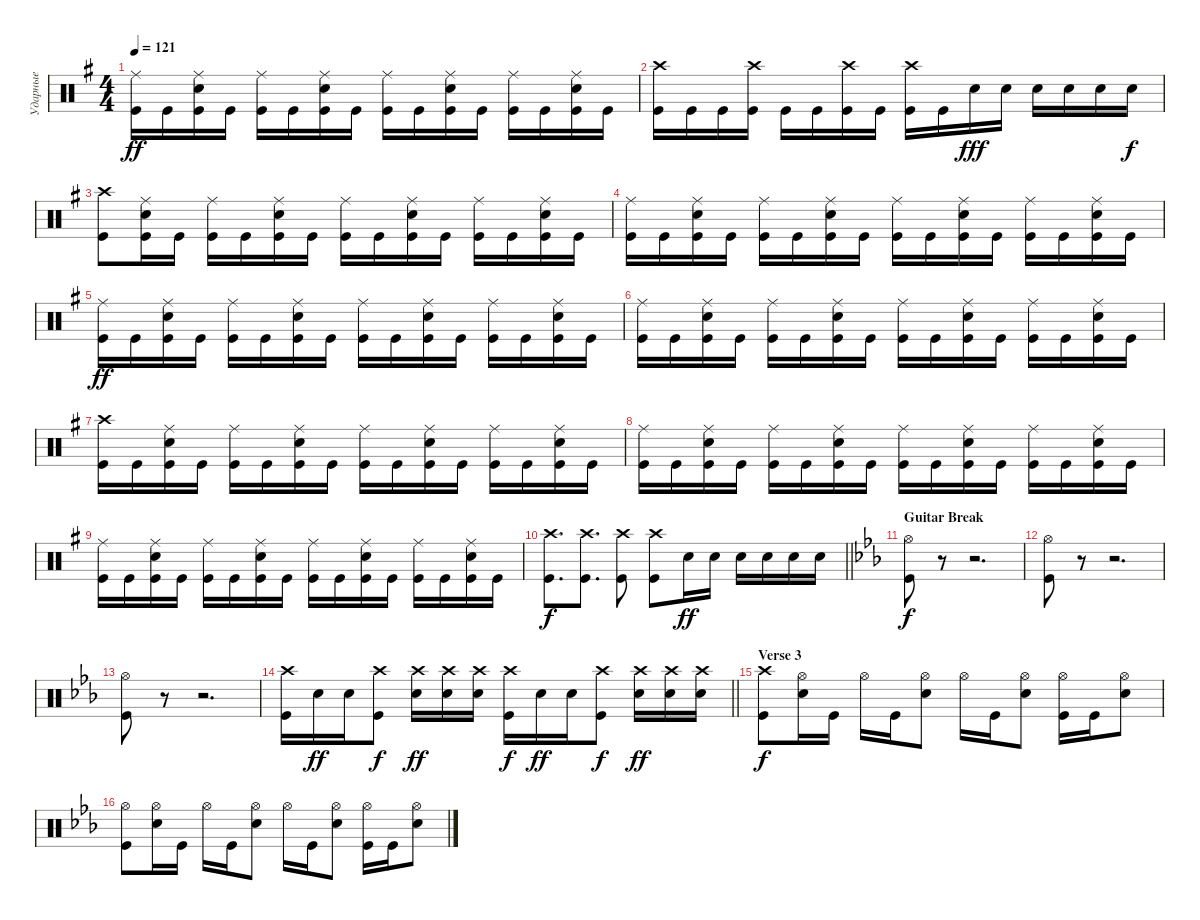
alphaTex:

\track ("Ударные" "Ударные") {instrument percussion}
\staff {score}
\articulation defaults
\ts (4 4)
\tempo 121
\clef neutral
\ks eminor
("Kick (hit)" "Ride (middle)").16{dy ff} "Kick (hit)".16 ("Kick (hit)" "Snare (hit) 2" "Ride (middle)").16 "Kick (hit)".16 ("Kick (hit)" "Ride (middle)").16 "Kick (hit)".16 ("Kick (hit)" "Snare (hit) 2" "Ride (middle)").16 "Kick (hit)".16 ("Kick (hit)" "Ride (middle)").16 "Kick (hit)".16 ("Kick (hit)" "Snare (hit) 2" "Ride (middle)").16 "Kick (hit)".16 ("Kick (hit)" "Ride (middle)").16 "Kick (hit)".16 ("Kick (hit)" "Snare (hit) 2" "Ride (middle)").16 "Kick (hit)".16 |
("Kick (hit)" "Crash high (hit)").16 "Kick (hit)".16 "Kick (hit)".16 ("Kick (hit)" "Crash high (hit)").16 "Kick (hit)".16 "Kick (hit)".16 ("Kick (hit)" "Crash high (hit)").16 "Kick (hit)".16 ("Kick (hit)" "Crash high (hit)").16 "Kick (hit)".16 "Snare (hit) 2".16{dy fff} "Snare (hit) 2".16 "Snare (hit) 2".16 "Snare (hit) 2".16 "Snare (hit) 2".16 "Snare (hit) 2".16{dy f} |
("Kick (hit)" "Crash high (hit)").8 ("Kick (hit)" "Snare (hit) 2" "Ride (middle)").16 "Kick (hit)".16 ("Kick (hit)" "Ride (middle)").16 "Kick (hit)".16 ("Kick (hit)" "Snare (hit) 2" "Ride (middle)").16 "Kick (hit)".16 ("Kick (hit)" "Ride (middle)").16 "Kick (hit)".16 ("Kick (hit)" "Snare (hit) 2" "Ride (middle)").16 "Kick (hit)".16 ("Kick (hit)" "Ride (middle)").16 "Kick (hit)".16 ("Kick (hit)" "Snare (hit) 2" "Ride (middle)").16 "Kick (hit)".16 |
("Kick (hit)" "Ride (middle)").16 "Kick (hit)".16 ("Kick (hit)" "Snare (hit) 2" "Ride (middle)").16 "Kick (hit)".16 ("Kick (hit)" "Ride (middle)").16 "Kick (hit)".16 ("Kick (hit)" "Snare (hit) 2" "Ride (middle)").16 "Kick (hit)".16 ("Kick (hit)" "Ride (middle)").16 "Kick (hit)".16 ("Kick (hit)" "Snare (hit) 2" "Ride (middle)").16 "Kick (hit)".16 ("Kick (hit)" "Ride (middle)").16 "Kick (hit)".16 ("Kick (hit)" "Snare (hit) 2" "Ride (middle)").16 "Kick (hit)".16 |
("Kick (hit)" "Ride (middle)").16{dy ff} "Kick (hit)".16 ("Kick (hit)" "Snare (hit) 2" "Ride (middle)").16 "Kick (hit)".16 ("Kick (hit)" "Ride (middle)").16 "Kick (hit)".16 ("Kick (hit)" "Snare (hit) 2" "Ride (middle)").16 "Kick (hit)".16 ("Kick (hit)" "Ride (middle)").16 "Kick (hit)".16 ("Kick (hit)" "Snare (hit) 2" "Ride (middle)").16 "Kick (hit)".16 ("Kick (hit)" "Ride (middle)").16 "Kick (hit)".16 ("Kick (hit)" "Snare (hit) 2" "Ride (middle)").16 "Kick (hit)".16 |
("Kick (hit)" "Ride (middle)").16 "Kick (hit)".16 ("Kick (hit)" "Snare (hit) 2" "Ride (middle)").16 "Kick (hit)".16 ("Kick (hit)" "Ride (middle)").16 "Kick (hit)".16 ("Kick (hit)" "Snare (hit) 2" "Ride (middle)").16 "Kick (hit)".16 ("Kick (hit)" "Ride (middle)").16 "Kick (hit)".16 ("Kick (hit)" "Snare (hit) 2" "Ride (middle)").16 "Kick (hit)".16 ("Kick (hit)" "Ride (middle)").16 "Kick (hit)".16 ("Kick (hit)" "Snare (hit) 2" "Ride (middle)").16 "Kick (hit)".16 |
("Kick (hit)" "Crash high (hit)").16 "Kick (hit)".16 ("Kick (hit)" "Snare (hit) 2" "Ride (middle)").16 "Kick (hit)".16 ("Kick (hit)" "Ride (middle)").16 "Kick (hit)".16 ("Kick (hit)" "Snare (hit) 2" "Ride (middle)").16 "Kick (hit)".16 ("Kick (hit)" "Ride (middle)").16 "Kick (hit)".16 ("Kick (hit)" "Snare (hit) 2" "Ride (middle)").16 "Kick (hit)".16 ("Kick (hit)" "Ride (middle)").16 "Kick (hit)".16 ("Kick (hit)" "Snare (hit) 2" "Ride (middle)").16 "Kick (hit)".16 |
("Kick (hit)" "Ride (middle)").16 "Kick (hit)".16 ("Kick (hit)" "Snare (hit) 2" "Ride (middle)").16 "Kick (hit)".16 ("Kick (hit)" "Ride (middle)").16 "Kick (hit)".16 ("Kick (hit)" "Snare (hit) 2" "Ride (middle)").16 "Kick (hit)".16 ("Kick (hit)" "Ride (middle)").16 "Kick (hit)".16 ("Kick (hit)" "Snare (hit) 2" "Ride (middle)").16 "Kick (hit)".16 ("Kick (hit)" "Ride (middle)").16 "Kick (hit)".16 ("Kick (hit)" "Snare (hit) 2" "Ride (middle)").16 "Kick (hit)".16 |
("Kick (hit)" "Ride (middle)").16 "Kick (hit)".16 ("Kick (hit)" "Snare (hit) 2" "Ride (middle)").16 "Kick (hit)".16 ("Kick (hit)" "Ride (middle)").16 "Kick (hit)".16 ("Kick (hit)" "Snare (hit) 2" "Ride (middle)").16 "Kick (hit)".16 ("Kick (hit)" "Ride (middle)").16 "Kick (hit)".16 ("Kick (hit)" "Snare (hit) 2" "Ride (middle)").16 "Kick (hit)".16 ("Kick (hit)" "Ride (middle)").16 "Kick (hit)".16 ("Kick (hit)" "Snare (hit) 2" "Ride (middle)").16 "Kick (hit)".16 |
\barLineRight lightlight
("Kick (hit)" "Crash high (hit)").8{d dy f} ("Kick (hit)" "Crash high (hit)").8{d} ("Kick (hit)" "Crash high (hit)").8 ("Kick (hit)" "Crash high (hit)").8 "Snare (hit) 2".16{dy ff} "Snare (hit) 2".16 "Snare (hit) 2".16 "Snare (hit) 2".16 "Snare (hit) 2".16 "Snare (hit) 2".16 |
\section ("" "Guitar Break")
\ks cminor
("Kick (hit)" "Hi-Hat (open)").8{dy f} r.8 r.2{d} |
("Hi-Hat (open)" "Kick (hit)").8 r.8 r.2{d} |
("Kick (hit)" "Hi-Hat (open)").8 r.8 r.2{d} |
\barLineRight lightlight
("Kick (hit)" "Crash high (hit)").16 "Snare (hit) 2".16{dy ff} "Snare (hit) 2".16 ("Kick (hit)" "Crash high (hit)").8{dy f} ("Snare (hit) 2" "Crash high (hit)").16{dy ff} ("Snare (hit) 2" "Crash high (hit)").16 ("Snare (hit) 2" "Crash high (hit)").16 ("Kick (hit)" "Crash high (hit)").16{dy f} "Snare (hit) 2".16{dy ff} "Snare (hit) 2".16 ("Kick (hit)" "Crash high (hit)").8{dy f} ("Snare (hit) 2" "Crash high (hit)").16{dy ff} ("Snare (hit) 2" "Crash high (hit)").16 ("Snare (hit) 2" "Crash high (hit)").16 |
\section ("" "Verse 3")
("Kick (hit)" "Crash high (hit)").8{dy f} ("Snare (hit) 2" "Hi-Hat (open)").16 "Kick (hit)".16 "Hi-Hat (open)".16 "Kick (hit)".16 ("Snare (hit) 2" "Hi-Hat (open)").8 "Hi-Hat (open)".16 "Kick (hit)".16 ("Snare (hit) 2" "Hi-Hat (open)").8 ("Kick (hit)" "Hi-Hat (open)").16 "Kick (hit)".16 ("Snare (hit) 2" "Hi-Hat (open)").8 |
("Kick (hit)" "Hi-Hat (open)").8 ("Snare (hit) 2" "Hi-Hat (open)").16 "Kick (hit)".16 "Hi-Hat (open)".16 "Kick (hit)".16 ("Snare (hit) 2" "Hi-Hat (open)").8 "Hi-Hat (open)".16 "Kick (hit)".16 ("Snare (hit) 2" "Hi-Hat (open)").8 ("Kick (hit)" "Hi-Hat (open)").16 "Kick (hit)".16 ("Snare (hit) 2" "Hi-Hat (open)").8
